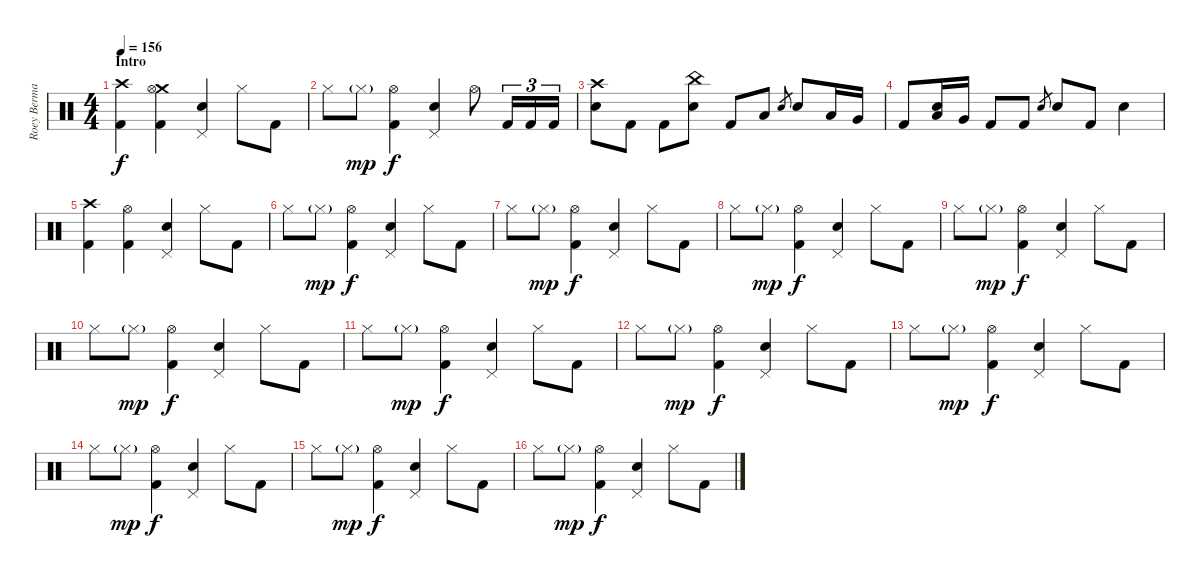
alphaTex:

\track ("Roey Berman" "Roey Berma") {instrument percussion}
\staff {score}
\articulation defaults
\ts (4 4)
\section ("" "Intro")
\tempo 156
\clef neutral
\ks c
("Crash high (hit)" "Kick (hit) 2").4{dy f} ("Crash medium (hit)" "Hi-Hat (open)" "Kick (hit) 2").4 ("Pedal Hi-Hat (hit)" "Electric Snare (hit)").4 "Hi-Hat (closed)".8 "Kick (hit) 2".8 |
"Hi-Hat (closed)".8 "Hi-Hat (closed)"{g}.8{dy mp} ("Hi-Hat (open)" "Kick (hit) 2").4{dy f} ("Pedal Hi-Hat (hit)" "Electric Snare (hit)").4 "Hi-Hat (open)".8 "Kick (hit) 2".16{tu (3 2)} "Kick (hit) 2".16{tu (3 2)} "Kick (hit) 2".16{tu (3 2)} |
("Crash high (hit)" "Electric Snare (hit)").8 "Kick (hit) 2".8 "Kick (hit) 2".8 ("China (hit)" "Electric Snare (hit)").8 "Kick (hit) 2".8 "Low Tom (hit)".8 "Electric Snare (hit)".8{gr} "Electric Snare (hit)".8 "Low Tom (hit)".16 "Very Low Tom (hit)".16 |
"Kick (hit) 2".8 ("Low Tom (hit)" "Electric Snare (hit)").16 "Very Low Tom (hit)".16 "Kick (hit) 2".8 "Kick (hit) 2".8 "Electric Snare (hit)".8{gr} "Electric Snare (hit)".8 "Kick (hit) 2".8 "Electric Snare (hit)".4 |
("Crash high (hit)" "Kick (hit) 2").4 ("Hi-Hat (open)" "Kick (hit) 2").4 ("Pedal Hi-Hat (hit)" "Electric Snare (hit)").4 "Hi-Hat (closed)".8 "Kick (hit) 2".8 |
"Hi-Hat (closed)".8 "Hi-Hat (closed)"{g}.8{dy mp} ("Hi-Hat (open)" "Kick (hit) 2").4{dy f} ("Pedal Hi-Hat (hit)" "Electric Snare (hit)").4 "Hi-Hat (closed)".8 "Kick (hit) 2".8 |
"Hi-Hat (closed)".8 "Hi-Hat (closed)"{g}.8{dy mp} ("Hi-Hat (open)" "Kick (hit) 2").4{dy f} ("Pedal Hi-Hat (hit)" "Electric Snare (hit)").4 "Hi-Hat (closed)".8 "Kick (hit) 2".8 |
"Hi-Hat (closed)".8 "Hi-Hat (closed)"{g}.8{dy mp} ("Hi-Hat (open)" "Kick (hit) 2").4{dy f} ("Pedal Hi-Hat (hit)" "Electric Snare (hit)").4 "Hi-Hat (closed)".8 "Kick (hit) 2".8 |
"Hi-Hat (closed)".8 "Hi-Hat (closed)"{g}.8{dy mp} ("Hi-Hat (open)" "Kick (hit) 2").4{dy f} ("Pedal Hi-Hat (hit)" "Electric Snare (hit)").4 "Hi-Hat (closed)".8 "Kick (hit) 2".8 |
"Hi-Hat (closed)".8 "Hi-Hat (closed)"{g}.8{dy mp} ("Hi-Hat (open)" "Kick (hit) 2").4{dy f} ("Pedal Hi-Hat (hit)" "Electric Snare (hit)").4 "Hi-Hat (closed)".8 "Kick (hit) 2".8 |
"Hi-Hat (closed)".8 "Hi-Hat (closed)"{g}.8{dy mp} ("Hi-Hat (open)" "Kick (hit) 2").4{dy f} ("Pedal Hi-Hat (hit)" "Electric Snare (hit)").4 "Hi-Hat (closed)".8 "Kick (hit) 2".8 |
"Hi-Hat (closed)".8 "Hi-Hat (closed)"{g}.8{dy mp} ("Hi-Hat (open)" "Kick (hit) 2").4{dy f} ("Pedal Hi-Hat (hit)" "Electric Snare (hit)").4 "Hi-Hat (closed)".8 "Kick (hit) 2".8 |
"Hi-Hat (closed)".8 "Hi-Hat (closed)"{g}.8{dy mp} ("Hi-Hat (open)" "Kick (hit) 2").4{dy f} ("Pedal Hi-Hat (hit)" "Electric Snare (hit)").4 "Hi-Hat (closed)".8 "Kick (hit) 2".8 |
"Hi-Hat (closed)".8 "Hi-Hat (closed)"{g}.8{dy mp} ("Hi-Hat (open)" "Kick (hit) 2").4{dy f} ("Pedal Hi-Hat (hit)" "Electric Snare (hit)").4 "Hi-Hat (closed)".8 "Kick (hit) 2".8 |
"Hi-Hat (closed)".8 "Hi-Hat (closed)"{g}.8{dy mp} ("Hi-Hat (open)" "Kick (hit) 2").4{dy f} ("Pedal Hi-Hat (hit)" "Electric Snare (hit)").4 "Hi-Hat (closed)".8 "Kick (hit) 2".8 |
"Hi-Hat (closed)".8 "Hi-Hat (closed)"{g}.8{dy mp} ("Hi-Hat (open)" "Kick (hit) 2").4{dy f} ("Pedal Hi-Hat (hit)" "Electric Snare (hit)").4 "Hi-Hat (closed)".8 "Kick (hit) 2".8
